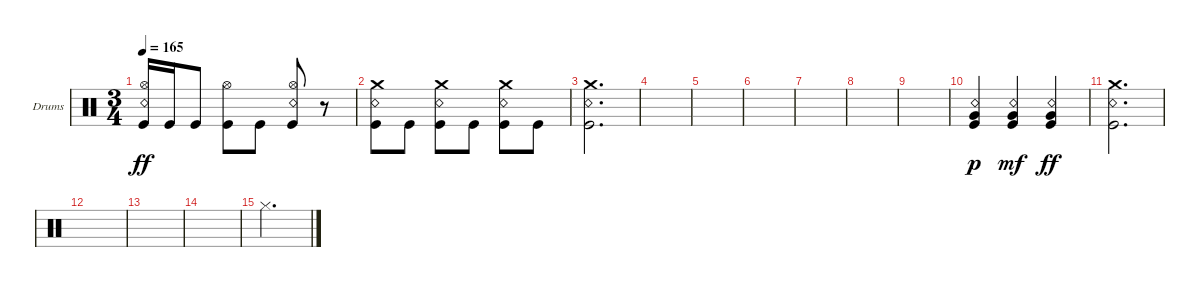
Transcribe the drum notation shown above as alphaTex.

\bracketExtendMode groupsimilarinstruments
\firstSystemTrackNameOrientation horizontal
\otherSystemsTrackNameOrientation horizontal
\track ("Kaleb - Drums" "Drums") {instrument percussion}
\staff {score}
\articulation defaults
\ts (3 4)
\tempo 165
\clef neutral
\ks c
("Kick (hit)" "Hi-Hat (open)" "Snare (rim shot)").16{dy ff} "Kick (hit)".16 "Kick (hit)".8 ("Kick (hit)" "Hi-Hat (open)").8 "Kick (hit)".8 ("Kick (hit)" "Hi-Hat (open)" "Snare (rim shot)").8 r.8 |
("Kick (hit)" "Crash medium (hit)" "Snare (rim shot)").8 "Kick (hit)".8 ("Kick (hit)" "Crash medium (hit)" "Snare (rim shot)").8 "Kick (hit)".8 ("Kick (hit)" "Crash medium (hit)" "Snare (rim shot)").8 "Kick (hit)".8 |
("Crash medium (hit)" "Kick (hit)" "Snare (rim shot)").2{d} |
|
|
|
|
|
|
("Kick (hit)" "Very Low Tom (hit)" "Snare (rim shot)").4{dy p} ("Snare (rim shot)" "Very Low Tom (hit)" "Kick (hit)").4{dy mf} ("Snare (rim shot)" "Very Low Tom (hit)" "Kick (hit)").4{dy ff} |
("Crash medium (hit)" "Snare (rim shot)" "Kick (hit)").2{d} |
|
|
|
"Hi-Hat (closed)".2{d}
